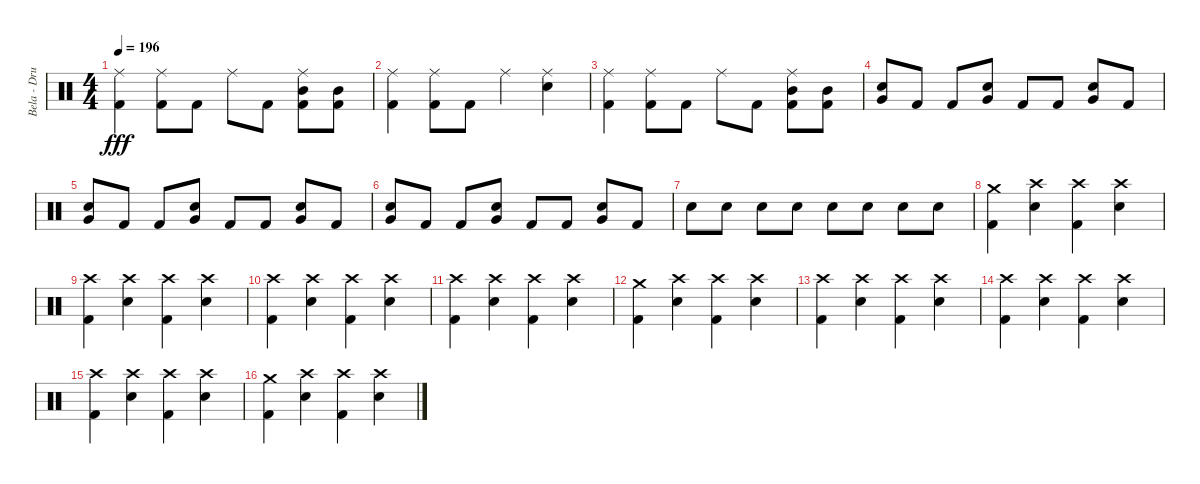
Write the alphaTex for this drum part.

\track ("Bela - Drums" "Bela - Dru") {instrument percussion}
\staff {score}
\articulation defaults
\ts (4 4)
\tempo 196
\clef neutral
\ks c
("Ride (middle)" "Kick (hit) 2").4{dy fff} ("Ride (middle)" "Kick (hit) 2").8 "Kick (hit) 2".8 "Ride (middle)".8 "Kick (hit) 2".8 ("Ride (middle)" "Mid Tom (hit)" "Kick (hit) 2").8 ("Mid Tom (hit)" "Kick (hit) 2").8 |
("Ride (middle)" "Kick (hit) 2").4 ("Ride (middle)" "Kick (hit) 2").8 "Kick (hit) 2".8 "Ride (middle)".4 ("Ride (middle)" "Electric Snare (hit)").4 |
("Ride (middle)" "Kick (hit) 2").4 ("Ride (middle)" "Kick (hit) 2").8 "Kick (hit) 2".8 "Ride (middle)".8 "Kick (hit) 2".8 ("Ride (middle)" "Mid Tom (hit)" "Kick (hit) 2").8 ("Mid Tom (hit)" "Kick (hit) 2").8 |
("Electric Snare (hit)" "Very Low Tom (hit)").8 "Kick (hit) 2".8 "Kick (hit) 2".8 ("Electric Snare (hit)" "Very Low Tom (hit)").8 "Kick (hit) 2".8 "Kick (hit) 2".8 ("Electric Snare (hit)" "Very Low Tom (hit)").8 "Kick (hit) 2".8 |
("Electric Snare (hit)" "Very Low Tom (hit)").8 "Kick (hit) 2".8 "Kick (hit) 2".8 ("Electric Snare (hit)" "Very Low Tom (hit)").8 "Kick (hit) 2".8 "Kick (hit) 2".8 ("Electric Snare (hit)" "Very Low Tom (hit)").8 "Kick (hit) 2".8 |
("Electric Snare (hit)" "Very Low Tom (hit)").8 "Kick (hit) 2".8 "Kick (hit) 2".8 ("Electric Snare (hit)" "Very Low Tom (hit)").8 "Kick (hit) 2".8 "Kick (hit) 2".8 ("Electric Snare (hit)" "Very Low Tom (hit)").8 "Kick (hit) 2".8 |
"Electric Snare (hit)".8 "Electric Snare (hit)".8 "Electric Snare (hit)".8 "Electric Snare (hit)".8 "Electric Snare (hit)".8 "Electric Snare (hit)".8 "Electric Snare (hit)".8 "Electric Snare (hit)".8 |
("Crash medium (hit)" "Kick (hit) 2").4 ("Crash high (hit)" "Electric Snare (hit)").4 ("Crash high (hit)" "Kick (hit) 2").4 ("Crash high (hit)" "Electric Snare (hit)").4 |
("Crash high (hit)" "Kick (hit) 2").4 ("Crash high (hit)" "Electric Snare (hit)").4 ("Crash high (hit)" "Kick (hit) 2").4 ("Crash high (hit)" "Electric Snare (hit)").4 |
("Crash high (hit)" "Kick (hit) 2").4 ("Crash high (hit)" "Electric Snare (hit)").4 ("Crash high (hit)" "Kick (hit) 2").4 ("Crash high (hit)" "Electric Snare (hit)").4 |
("Crash high (hit)" "Kick (hit) 2").4 ("Crash high (hit)" "Electric Snare (hit)").4 ("Crash high (hit)" "Kick (hit) 2").4 ("Crash high (hit)" "Electric Snare (hit)").4 |
("Crash medium (hit)" "Kick (hit) 2").4 ("Crash high (hit)" "Electric Snare (hit)").4 ("Crash high (hit)" "Kick (hit) 2").4 ("Crash high (hit)" "Electric Snare (hit)").4 |
("Crash high (hit)" "Kick (hit) 2").4 ("Crash high (hit)" "Electric Snare (hit)").4 ("Crash high (hit)" "Kick (hit) 2").4 ("Crash high (hit)" "Electric Snare (hit)").4 |
("Crash high (hit)" "Kick (hit) 2").4 ("Crash high (hit)" "Electric Snare (hit)").4 ("Crash high (hit)" "Kick (hit) 2").4 ("Crash high (hit)" "Electric Snare (hit)").4 |
("Crash high (hit)" "Kick (hit) 2").4 ("Crash high (hit)" "Electric Snare (hit)").4 ("Crash high (hit)" "Kick (hit) 2").4 ("Crash high (hit)" "Electric Snare (hit)").4 |
("Crash medium (hit)" "Kick (hit) 2").4 ("Crash high (hit)" "Electric Snare (hit)").4 ("Crash high (hit)" "Kick (hit) 2").4 ("Crash high (hit)" "Electric Snare (hit)").4
